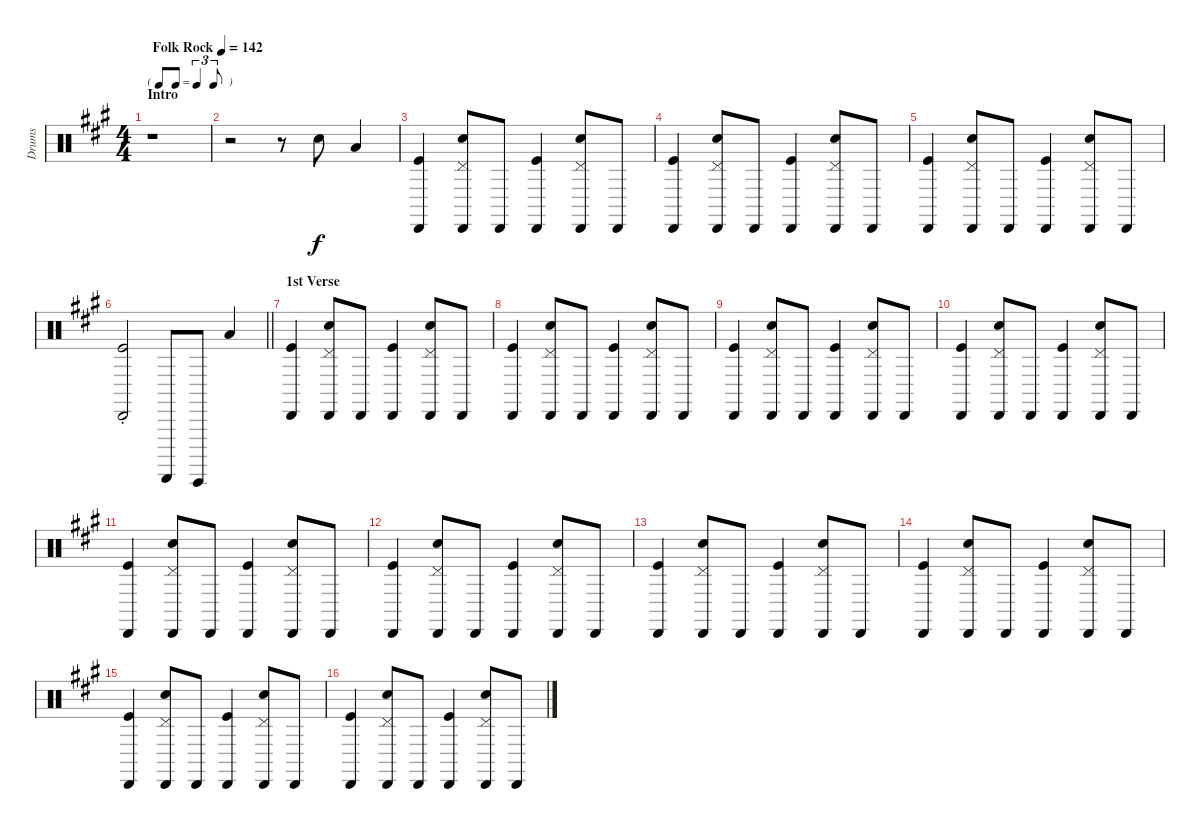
\track ("Drums" "Drums") {instrument percussion}
\staff {score}
\articulation defaults
\ts (4 4)
\tf triplet8th
\section ("" "Intro")
\tempo (142 "Folk Rock")
\clef neutral
\ks a
r.1{dy f} |
r.2 r.8 "Snare (hit) 2".8 "Low Tom (hit)".4 |
("Cabasa (hit)" "Kick (hit)").4 ("Pedal Hi-Hat (hit)" "Cabasa (hit)" "Snare (hit) 2").8 "Cabasa (hit)".8 ("Cabasa (hit)" "Kick (hit)").4 ("Pedal Hi-Hat (hit)" "Cabasa (hit)" "Snare (hit) 2").8 "Cabasa (hit)".8 |
("Cabasa (hit)" "Kick (hit)").4 ("Pedal Hi-Hat (hit)" "Cabasa (hit)" "Snare (hit) 2").8 "Cabasa (hit)".8 ("Cabasa (hit)" "Kick (hit)").4 ("Pedal Hi-Hat (hit)" "Cabasa (hit)" "Snare (hit) 2").8 "Cabasa (hit)".8 |
("Cabasa (hit)" "Kick (hit)").4 ("Pedal Hi-Hat (hit)" "Cabasa (hit)" "Snare (hit) 2").8 "Cabasa (hit)".8 ("Cabasa (hit)" "Kick (hit)").4 ("Pedal Hi-Hat (hit)" "Cabasa (hit)" "Snare (hit) 2").8 "Cabasa (hit)".8 |
\barLineRight lightlight
("Cabasa (hit)"{st} "Kick (hit)"{st}).2 "Guiro (scrap-return)".8 "Guiro (hit)".8 "Low Tom (hit)".4 |
\section ("" "1st Verse")
("Cabasa (hit)" "Kick (hit)").4 ("Pedal Hi-Hat (hit)" "Cabasa (hit)" "Snare (hit) 2").8 "Cabasa (hit)".8 ("Cabasa (hit)" "Kick (hit)").4 ("Pedal Hi-Hat (hit)" "Cabasa (hit)" "Snare (hit) 2").8 "Cabasa (hit)".8 |
("Cabasa (hit)" "Kick (hit)").4 ("Pedal Hi-Hat (hit)" "Cabasa (hit)" "Snare (hit) 2").8 "Cabasa (hit)".8 ("Cabasa (hit)" "Kick (hit)").4 ("Pedal Hi-Hat (hit)" "Cabasa (hit)" "Snare (hit) 2").8 "Cabasa (hit)".8 |
("Cabasa (hit)" "Kick (hit)").4 ("Pedal Hi-Hat (hit)" "Cabasa (hit)" "Snare (hit) 2").8 "Cabasa (hit)".8 ("Cabasa (hit)" "Kick (hit)").4 ("Pedal Hi-Hat (hit)" "Cabasa (hit)" "Snare (hit) 2").8 "Cabasa (hit)".8 |
("Cabasa (hit)" "Kick (hit)").4 ("Pedal Hi-Hat (hit)" "Cabasa (hit)" "Snare (hit) 2").8 "Cabasa (hit)".8 ("Cabasa (hit)" "Kick (hit)").4 ("Pedal Hi-Hat (hit)" "Cabasa (hit)" "Snare (hit) 2").8 "Cabasa (hit)".8 |
("Cabasa (hit)" "Kick (hit)").4 ("Pedal Hi-Hat (hit)" "Cabasa (hit)" "Snare (hit) 2").8 "Cabasa (hit)".8 ("Cabasa (hit)" "Kick (hit)").4 ("Pedal Hi-Hat (hit)" "Cabasa (hit)" "Snare (hit) 2").8 "Cabasa (hit)".8 |
("Cabasa (hit)" "Kick (hit)").4 ("Pedal Hi-Hat (hit)" "Cabasa (hit)" "Snare (hit) 2").8 "Cabasa (hit)".8 ("Cabasa (hit)" "Kick (hit)").4 ("Pedal Hi-Hat (hit)" "Cabasa (hit)" "Snare (hit) 2").8 "Cabasa (hit)".8 |
("Cabasa (hit)" "Kick (hit)").4 ("Pedal Hi-Hat (hit)" "Cabasa (hit)" "Snare (hit) 2").8 "Cabasa (hit)".8 ("Cabasa (hit)" "Kick (hit)").4 ("Pedal Hi-Hat (hit)" "Cabasa (hit)" "Snare (hit) 2").8 "Cabasa (hit)".8 |
("Cabasa (hit)" "Kick (hit)").4 ("Pedal Hi-Hat (hit)" "Cabasa (hit)" "Snare (hit) 2").8 "Cabasa (hit)".8 ("Cabasa (hit)" "Kick (hit)").4 ("Pedal Hi-Hat (hit)" "Cabasa (hit)" "Snare (hit) 2").8 "Cabasa (hit)".8 |
("Cabasa (hit)" "Kick (hit)").4 ("Pedal Hi-Hat (hit)" "Cabasa (hit)" "Snare (hit) 2").8 "Cabasa (hit)".8 ("Cabasa (hit)" "Kick (hit)").4 ("Pedal Hi-Hat (hit)" "Cabasa (hit)" "Snare (hit) 2").8 "Cabasa (hit)".8 |
("Cabasa (hit)" "Kick (hit)").4 ("Pedal Hi-Hat (hit)" "Cabasa (hit)" "Snare (hit) 2").8 "Cabasa (hit)".8 ("Cabasa (hit)" "Kick (hit)").4 ("Pedal Hi-Hat (hit)" "Cabasa (hit)" "Snare (hit) 2").8 "Cabasa (hit)".8
